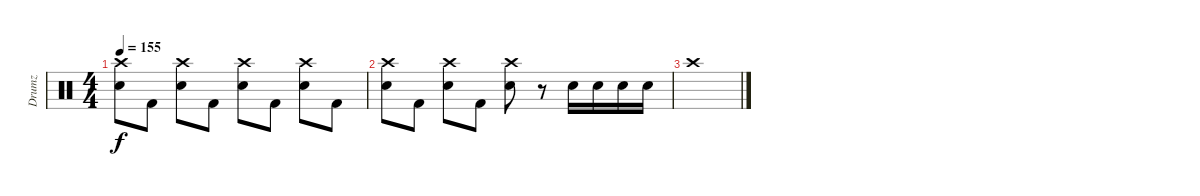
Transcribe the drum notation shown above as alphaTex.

\track ("Drumz" "Drumz") {instrument percussion}
\staff {score}
\articulation defaults
\ts (4 4)
\tempo 155
\clef neutral
\ks c
("Crash high (hit)" "Electric Snare (hit)").8{dy f} "Kick (hit) 2".8 ("Crash high (hit)" "Electric Snare (hit)").8 "Kick (hit) 2".8 ("Crash high (hit)" "Electric Snare (hit)").8 "Kick (hit) 2".8 ("Crash high (hit)" "Electric Snare (hit)").8 "Kick (hit) 2".8 |
("Crash high (hit)" "Electric Snare (hit)").8 "Kick (hit) 2".8 ("Crash high (hit)" "Electric Snare (hit)").8 "Kick (hit) 2".8 ("Crash high (hit)" "Electric Snare (hit)").8 r.8 "Electric Snare (hit)".16 "Electric Snare (hit)".16 "Electric Snare (hit)".16 "Electric Snare (hit)".16 |
"Crash high (hit)".1
